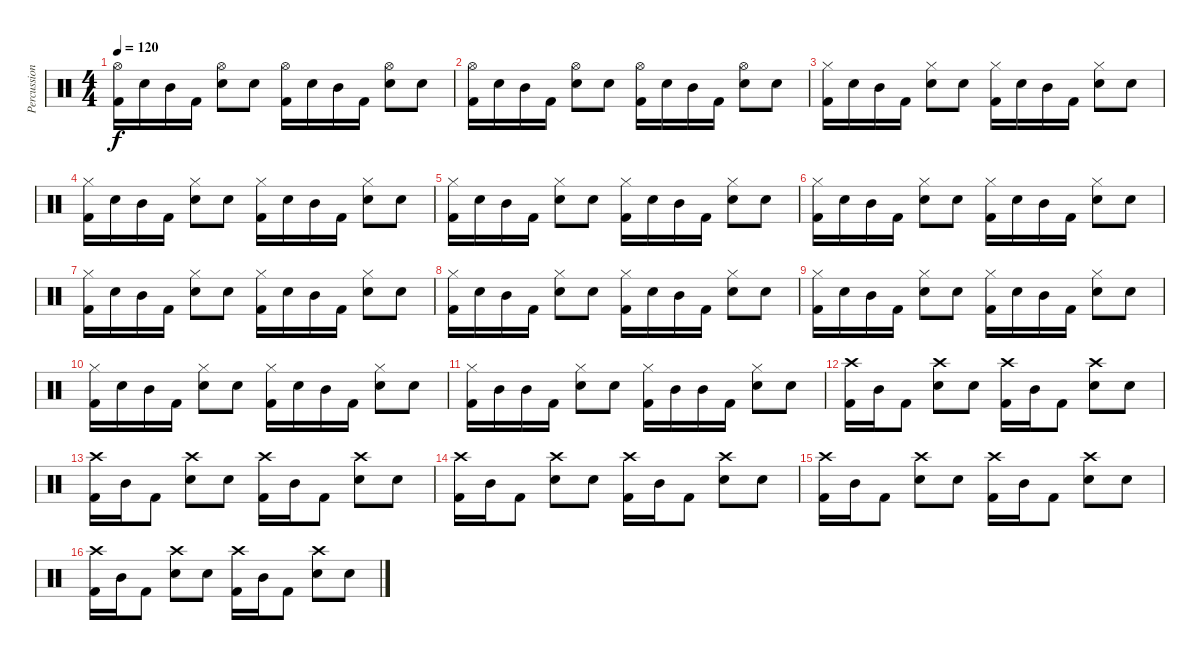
\track ("Percussions" "Percussion") {instrument percussion}
\staff {score}
\articulation defaults
\ts (4 4)
\tempo 120
\clef neutral
\ks c
("Kick (hit) 2" "Hi-Hat (open)").16{dy f} "Electric Snare (hit)".16 "Mid Tom (hit)".16 "Kick (hit) 2".16 ("Electric Snare (hit)" "Hi-Hat (open)").8 "Electric Snare (hit)".8 ("Kick (hit) 2" "Hi-Hat (open)").16 "Electric Snare (hit)".16 "Mid Tom (hit)".16 "Kick (hit) 2".16 ("Electric Snare (hit)" "Hi-Hat (open)").8 "Electric Snare (hit)".8 |
("Kick (hit) 2" "Hi-Hat (open)").16 "Electric Snare (hit)".16 "Mid Tom (hit)".16 "Kick (hit) 2".16 ("Electric Snare (hit)" "Hi-Hat (open)").8 "Electric Snare (hit)".8 ("Kick (hit) 2" "Hi-Hat (open)").16 "Electric Snare (hit)".16 "Mid Tom (hit)".16 "Kick (hit) 2".16 ("Electric Snare (hit)" "Hi-Hat (open)").8 "Electric Snare (hit)".8 |
("Kick (hit) 2" "Hi-Hat (closed)").16 "Electric Snare (hit)".16 "Mid Tom (hit)".16 "Kick (hit) 2".16 ("Electric Snare (hit)" "Hi-Hat (closed)").8 "Electric Snare (hit)".8 ("Kick (hit) 2" "Hi-Hat (closed)").16 "Electric Snare (hit)".16 "Mid Tom (hit)".16 "Kick (hit) 2".16 ("Electric Snare (hit)" "Hi-Hat (closed)").8 "Electric Snare (hit)".8 |
("Kick (hit) 2" "Hi-Hat (closed)").16 "Electric Snare (hit)".16 "Mid Tom (hit)".16 "Kick (hit) 2".16 ("Electric Snare (hit)" "Hi-Hat (closed)").8 "Electric Snare (hit)".8 ("Kick (hit) 2" "Hi-Hat (closed)").16 "Electric Snare (hit)".16 "Mid Tom (hit)".16 "Kick (hit) 2".16 ("Electric Snare (hit)" "Hi-Hat (closed)").8 "Electric Snare (hit)".8 |
("Kick (hit) 2" "Hi-Hat (closed)").16 "Electric Snare (hit)".16 "Mid Tom (hit)".16 "Kick (hit) 2".16 ("Electric Snare (hit)" "Hi-Hat (closed)").8 "Electric Snare (hit)".8 ("Kick (hit) 2" "Hi-Hat (closed)").16 "Electric Snare (hit)".16 "Mid Tom (hit)".16 "Kick (hit) 2".16 ("Electric Snare (hit)" "Hi-Hat (closed)").8 "Electric Snare (hit)".8 |
("Kick (hit) 2" "Hi-Hat (closed)").16 "Electric Snare (hit)".16 "Mid Tom (hit)".16 "Kick (hit) 2".16 ("Electric Snare (hit)" "Hi-Hat (closed)").8 "Electric Snare (hit)".8 ("Kick (hit) 2" "Hi-Hat (closed)").16 "Electric Snare (hit)".16 "Mid Tom (hit)".16 "Kick (hit) 2".16 ("Electric Snare (hit)" "Hi-Hat (closed)").8 "Electric Snare (hit)".8 |
("Kick (hit) 2" "Hi-Hat (closed)").16 "Electric Snare (hit)".16 "Mid Tom (hit)".16 "Kick (hit) 2".16 ("Electric Snare (hit)" "Hi-Hat (closed)").8 "Electric Snare (hit)".8 ("Kick (hit) 2" "Hi-Hat (closed)").16 "Electric Snare (hit)".16 "Mid Tom (hit)".16 "Kick (hit) 2".16 ("Electric Snare (hit)" "Hi-Hat (closed)").8 "Electric Snare (hit)".8 |
("Kick (hit) 2" "Hi-Hat (closed)").16 "Electric Snare (hit)".16 "Mid Tom (hit)".16 "Kick (hit) 2".16 ("Electric Snare (hit)" "Hi-Hat (closed)").8 "Electric Snare (hit)".8 ("Kick (hit) 2" "Hi-Hat (closed)").16 "Electric Snare (hit)".16 "Mid Tom (hit)".16 "Kick (hit) 2".16 ("Electric Snare (hit)" "Hi-Hat (closed)").8 "Electric Snare (hit)".8 |
("Kick (hit) 2" "Hi-Hat (closed)").16 "Electric Snare (hit)".16 "Mid Tom (hit)".16 "Kick (hit) 2".16 ("Electric Snare (hit)" "Hi-Hat (closed)").8 "Electric Snare (hit)".8 ("Kick (hit) 2" "Hi-Hat (closed)").16 "Electric Snare (hit)".16 "Mid Tom (hit)".16 "Kick (hit) 2".16 ("Electric Snare (hit)" "Hi-Hat (closed)").8 "Electric Snare (hit)".8 |
("Kick (hit) 2" "Hi-Hat (closed)").16 "Electric Snare (hit)".16 "Mid Tom (hit)".16 "Kick (hit) 2".16 ("Electric Snare (hit)" "Hi-Hat (closed)").8 "Electric Snare (hit)".8 ("Kick (hit) 2" "Hi-Hat (closed)").16 "Electric Snare (hit)".16 "Mid Tom (hit)".16 "Kick (hit) 2".16 ("Electric Snare (hit)" "Hi-Hat (closed)").8 "Electric Snare (hit)".8 |
("Kick (hit) 2" "Hi-Hat (closed)").16 "Mid Tom (hit)".16 "Mid Tom (hit)".16 "Kick (hit) 2".16 ("Electric Snare (hit)" "Hi-Hat (closed)").8 "Electric Snare (hit)".8 ("Kick (hit) 2" "Hi-Hat (closed)").16 "Mid Tom (hit)".16 "Mid Tom (hit)".16 "Kick (hit) 2".16 ("Electric Snare (hit)" "Hi-Hat (closed)").8 "Electric Snare (hit)".8 |
("Kick (hit) 2" "Crash high (hit)").16 "Mid Tom (hit)".16 "Kick (hit) 2".8 ("Electric Snare (hit)" "Crash high (hit)").8 "Electric Snare (hit)".8 ("Kick (hit) 2" "Crash high (hit)").16 "Mid Tom (hit)".16 "Kick (hit) 2".8 ("Electric Snare (hit)" "Crash high (hit)").8 "Electric Snare (hit)".8 |
("Kick (hit) 2" "Crash high (hit)").16 "Mid Tom (hit)".16 "Kick (hit) 2".8 ("Electric Snare (hit)" "Crash high (hit)").8 "Electric Snare (hit)".8 ("Kick (hit) 2" "Crash high (hit)").16 "Mid Tom (hit)".16 "Kick (hit) 2".8 ("Electric Snare (hit)" "Crash high (hit)").8 "Electric Snare (hit)".8 |
("Kick (hit) 2" "Crash high (hit)").16 "Mid Tom (hit)".16 "Kick (hit) 2".8 ("Electric Snare (hit)" "Crash high (hit)").8 "Electric Snare (hit)".8 ("Kick (hit) 2" "Crash high (hit)").16 "Mid Tom (hit)".16 "Kick (hit) 2".8 ("Electric Snare (hit)" "Crash high (hit)").8 "Electric Snare (hit)".8 |
("Kick (hit) 2" "Crash high (hit)").16 "Mid Tom (hit)".16 "Kick (hit) 2".8 ("Electric Snare (hit)" "Crash high (hit)").8 "Electric Snare (hit)".8 ("Kick (hit) 2" "Crash high (hit)").16 "Mid Tom (hit)".16 "Kick (hit) 2".8 ("Electric Snare (hit)" "Crash high (hit)").8 "Electric Snare (hit)".8 |
("Kick (hit) 2" "Crash high (hit)").16 "Mid Tom (hit)".16 "Kick (hit) 2".8 ("Electric Snare (hit)" "Crash high (hit)").8 "Electric Snare (hit)".8 ("Kick (hit) 2" "Crash high (hit)").16 "Mid Tom (hit)".16 "Kick (hit) 2".8 ("Electric Snare (hit)" "Crash high (hit)").8 "Electric Snare (hit)".8
